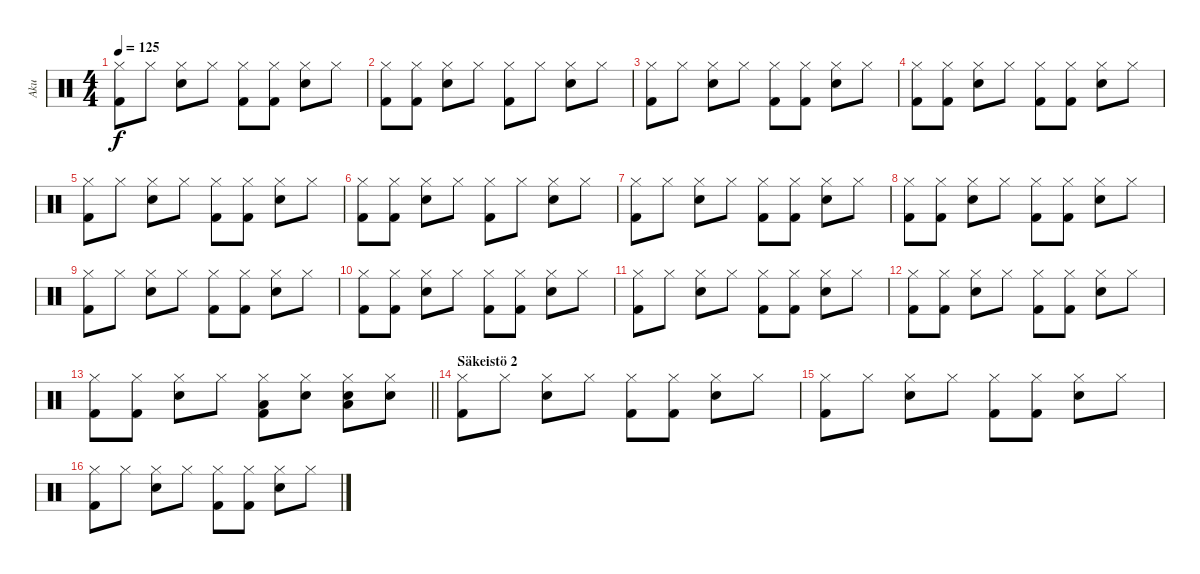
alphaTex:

\track ("Aku" "Aku") {instrument percussion}
\staff {score}
\articulation defaults
\ts (4 4)
\tempo 125
\clef neutral
\ks c
("Hi-Hat (closed)" "Kick (hit) 2").8{dy f} "Hi-Hat (closed)".8 ("Hi-Hat (closed)" "Snare (hit) 2").8 "Hi-Hat (closed)".8 ("Hi-Hat (closed)" "Kick (hit) 2").8 ("Hi-Hat (closed)" "Kick (hit) 2").8 ("Hi-Hat (closed)" "Snare (hit) 2").8 "Hi-Hat (closed)".8 |
("Hi-Hat (closed)" "Kick (hit) 2").8 ("Hi-Hat (closed)" "Kick (hit) 2").8 ("Hi-Hat (closed)" "Snare (hit) 2").8 "Hi-Hat (closed)".8 ("Hi-Hat (closed)" "Kick (hit) 2").8 "Hi-Hat (closed)".8 ("Hi-Hat (closed)" "Snare (hit) 2").8 "Hi-Hat (closed)".8 |
("Hi-Hat (closed)" "Kick (hit) 2").8 "Hi-Hat (closed)".8 ("Hi-Hat (closed)" "Snare (hit) 2").8 "Hi-Hat (closed)".8 ("Hi-Hat (closed)" "Kick (hit) 2").8 ("Hi-Hat (closed)" "Kick (hit) 2").8 ("Hi-Hat (closed)" "Snare (hit) 2").8 "Hi-Hat (closed)".8 |
("Hi-Hat (closed)" "Kick (hit) 2").8 ("Hi-Hat (closed)" "Kick (hit) 2").8 ("Hi-Hat (closed)" "Snare (hit) 2").8 "Hi-Hat (closed)".8 ("Hi-Hat (closed)" "Kick (hit) 2").8 ("Hi-Hat (closed)" "Kick (hit) 2").8 ("Hi-Hat (closed)" "Snare (hit) 2").8 "Hi-Hat (closed)".8 |
("Hi-Hat (closed)" "Kick (hit) 2").8 "Hi-Hat (closed)".8 ("Hi-Hat (closed)" "Snare (hit) 2").8 "Hi-Hat (closed)".8 ("Hi-Hat (closed)" "Kick (hit) 2").8 ("Hi-Hat (closed)" "Kick (hit) 2").8 ("Hi-Hat (closed)" "Snare (hit) 2").8 "Hi-Hat (closed)".8 |
("Hi-Hat (closed)" "Kick (hit) 2").8 ("Hi-Hat (closed)" "Kick (hit) 2").8 ("Hi-Hat (closed)" "Snare (hit) 2").8 "Hi-Hat (closed)".8 ("Hi-Hat (closed)" "Kick (hit) 2").8 "Hi-Hat (closed)".8 ("Hi-Hat (closed)" "Snare (hit) 2").8 "Hi-Hat (closed)".8 |
("Hi-Hat (closed)" "Kick (hit) 2").8 "Hi-Hat (closed)".8 ("Hi-Hat (closed)" "Snare (hit) 2").8 "Hi-Hat (closed)".8 ("Hi-Hat (closed)" "Kick (hit) 2").8 ("Hi-Hat (closed)" "Kick (hit) 2").8 ("Hi-Hat (closed)" "Snare (hit) 2").8 "Hi-Hat (closed)".8 |
("Hi-Hat (closed)" "Kick (hit) 2").8 ("Hi-Hat (closed)" "Kick (hit) 2").8 ("Hi-Hat (closed)" "Snare (hit) 2").8 "Hi-Hat (closed)".8 ("Hi-Hat (closed)" "Kick (hit) 2").8 ("Hi-Hat (closed)" "Kick (hit) 2").8 ("Hi-Hat (closed)" "Snare (hit) 2").8 "Hi-Hat (closed)".8 |
("Hi-Hat (closed)" "Kick (hit) 2").8 "Hi-Hat (closed)".8 ("Hi-Hat (closed)" "Snare (hit) 2").8 "Hi-Hat (closed)".8 ("Hi-Hat (closed)" "Kick (hit) 2").8 ("Hi-Hat (closed)" "Kick (hit) 2").8 ("Hi-Hat (closed)" "Snare (hit) 2").8 "Hi-Hat (closed)".8 |
("Hi-Hat (closed)" "Kick (hit) 2").8 ("Hi-Hat (closed)" "Kick (hit) 2").8 ("Hi-Hat (closed)" "Snare (hit) 2").8 "Hi-Hat (closed)".8 ("Hi-Hat (closed)" "Kick (hit) 2").8 ("Hi-Hat (closed)" "Kick (hit) 2").8 ("Hi-Hat (closed)" "Snare (hit) 2").8 "Hi-Hat (closed)".8 |
("Hi-Hat (closed)" "Kick (hit) 2").8 "Hi-Hat (closed)".8 ("Hi-Hat (closed)" "Snare (hit) 2").8 "Hi-Hat (closed)".8 ("Hi-Hat (closed)" "Kick (hit) 2").8 ("Hi-Hat (closed)" "Kick (hit) 2").8 ("Hi-Hat (closed)" "Snare (hit) 2").8 "Hi-Hat (closed)".8 |
("Hi-Hat (closed)" "Kick (hit) 2").8 ("Hi-Hat (closed)" "Kick (hit) 2").8 ("Hi-Hat (closed)" "Snare (hit) 2").8 "Hi-Hat (closed)".8 ("Hi-Hat (closed)" "Kick (hit) 2").8 ("Hi-Hat (closed)" "Kick (hit) 2").8 ("Hi-Hat (closed)" "Snare (hit) 2").8 "Hi-Hat (closed)".8 |
\barLineRight lightlight
("Hi-Hat (closed)" "Kick (hit) 2").8 ("Hi-Hat (closed)" "Kick (hit) 2").8 ("Hi-Hat (closed)" "Snare (hit) 2").8 "Hi-Hat (closed)".8 ("Low Tom (hit)" "Hi-Hat (closed)" "Kick (hit) 2").8 ("Snare (hit) 2" "Hi-Hat (closed)").8 ("Low Tom (hit)" "Hi-Hat (closed)" "Snare (hit) 2").8 ("Snare (hit) 2" "Hi-Hat (closed)").8 |
\section ("" "Säkeistö 2")
("Hi-Hat (closed)" "Kick (hit) 2").8 "Hi-Hat (closed)".8 ("Hi-Hat (closed)" "Snare (hit) 2").8 "Hi-Hat (closed)".8 ("Hi-Hat (closed)" "Kick (hit) 2").8 ("Hi-Hat (closed)" "Kick (hit) 2").8 ("Hi-Hat (closed)" "Snare (hit) 2").8 "Hi-Hat (closed)".8 |
("Hi-Hat (closed)" "Kick (hit) 2").8 "Hi-Hat (closed)".8 ("Hi-Hat (closed)" "Snare (hit) 2").8 "Hi-Hat (closed)".8 ("Hi-Hat (closed)" "Kick (hit) 2").8 ("Hi-Hat (closed)" "Kick (hit) 2").8 ("Hi-Hat (closed)" "Snare (hit) 2").8 "Hi-Hat (closed)".8 |
("Hi-Hat (closed)" "Kick (hit) 2").8 "Hi-Hat (closed)".8 ("Hi-Hat (closed)" "Snare (hit) 2").8 "Hi-Hat (closed)".8 ("Hi-Hat (closed)" "Kick (hit) 2").8 ("Hi-Hat (closed)" "Kick (hit) 2").8 ("Hi-Hat (closed)" "Snare (hit) 2").8 "Hi-Hat (closed)".8
